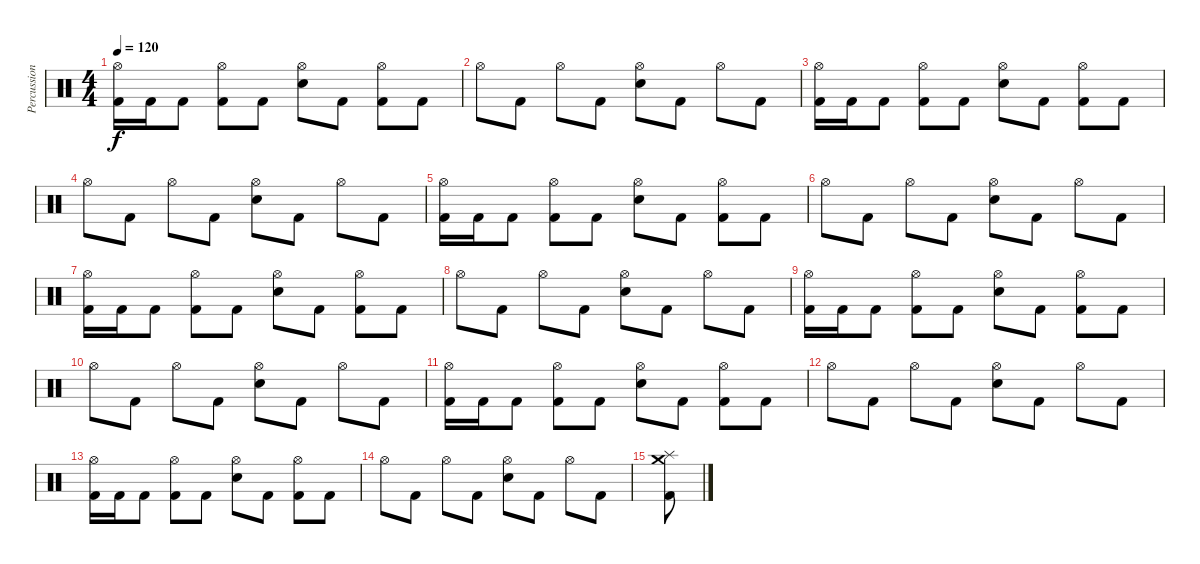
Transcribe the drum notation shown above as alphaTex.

\track ("Percussion" "Percussion") {instrument percussion}
\staff {score}
\articulation defaults
\ts (4 4)
\tempo 120
\clef neutral
\ks c
("Hi-Hat (open)" "Kick (hit) 2").16{dy f} "Kick (hit) 2".16 "Kick (hit) 2".8 ("Hi-Hat (open)" "Kick (hit) 2").8 "Kick (hit) 2".8 ("Hi-Hat (open)" "Snare (hit) 2").8 "Kick (hit) 2".8 ("Hi-Hat (open)" "Kick (hit) 2").8 "Kick (hit) 2".8 |
"Hi-Hat (open)".8 "Kick (hit) 2".8 "Hi-Hat (open)".8 "Kick (hit) 2".8 ("Hi-Hat (open)" "Snare (hit) 2").8 "Kick (hit) 2".8 "Hi-Hat (open)".8 "Kick (hit) 2".8 |
("Hi-Hat (open)" "Kick (hit) 2").16 "Kick (hit) 2".16 "Kick (hit) 2".8 ("Hi-Hat (open)" "Kick (hit) 2").8 "Kick (hit) 2".8 ("Hi-Hat (open)" "Snare (hit) 2").8 "Kick (hit) 2".8 ("Hi-Hat (open)" "Kick (hit) 2").8 "Kick (hit) 2".8 |
"Hi-Hat (open)".8 "Kick (hit) 2".8 "Hi-Hat (open)".8 "Kick (hit) 2".8 ("Hi-Hat (open)" "Snare (hit) 2").8 "Kick (hit) 2".8 "Hi-Hat (open)".8 "Kick (hit) 2".8 |
("Hi-Hat (open)" "Kick (hit) 2").16 "Kick (hit) 2".16 "Kick (hit) 2".8 ("Hi-Hat (open)" "Kick (hit) 2").8 "Kick (hit) 2".8 ("Hi-Hat (open)" "Snare (hit) 2").8 "Kick (hit) 2".8 ("Hi-Hat (open)" "Kick (hit) 2").8 "Kick (hit) 2".8 |
"Hi-Hat (open)".8 "Kick (hit) 2".8 "Hi-Hat (open)".8 "Kick (hit) 2".8 ("Hi-Hat (open)" "Snare (hit) 2").8 "Kick (hit) 2".8 "Hi-Hat (open)".8 "Kick (hit) 2".8 |
("Hi-Hat (open)" "Kick (hit) 2").16 "Kick (hit) 2".16 "Kick (hit) 2".8 ("Hi-Hat (open)" "Kick (hit) 2").8 "Kick (hit) 2".8 ("Hi-Hat (open)" "Snare (hit) 2").8 "Kick (hit) 2".8 ("Hi-Hat (open)" "Kick (hit) 2").8 "Kick (hit) 2".8 |
"Hi-Hat (open)".8 "Kick (hit) 2".8 "Hi-Hat (open)".8 "Kick (hit) 2".8 ("Hi-Hat (open)" "Snare (hit) 2").8 "Kick (hit) 2".8 "Hi-Hat (open)".8 "Kick (hit) 2".8 |
("Hi-Hat (open)" "Kick (hit) 2").16 "Kick (hit) 2".16 "Kick (hit) 2".8 ("Hi-Hat (open)" "Kick (hit) 2").8 "Kick (hit) 2".8 ("Hi-Hat (open)" "Snare (hit) 2").8 "Kick (hit) 2".8 ("Hi-Hat (open)" "Kick (hit) 2").8 "Kick (hit) 2".8 |
"Hi-Hat (open)".8 "Kick (hit) 2".8 "Hi-Hat (open)".8 "Kick (hit) 2".8 ("Hi-Hat (open)" "Snare (hit) 2").8 "Kick (hit) 2".8 "Hi-Hat (open)".8 "Kick (hit) 2".8 |
("Hi-Hat (open)" "Kick (hit) 2").16 "Kick (hit) 2".16 "Kick (hit) 2".8 ("Hi-Hat (open)" "Kick (hit) 2").8 "Kick (hit) 2".8 ("Hi-Hat (open)" "Snare (hit) 2").8 "Kick (hit) 2".8 ("Hi-Hat (open)" "Kick (hit) 2").8 "Kick (hit) 2".8 |
"Hi-Hat (open)".8 "Kick (hit) 2".8 "Hi-Hat (open)".8 "Kick (hit) 2".8 ("Hi-Hat (open)" "Snare (hit) 2").8 "Kick (hit) 2".8 "Hi-Hat (open)".8 "Kick (hit) 2".8 |
("Hi-Hat (open)" "Kick (hit) 2").16 "Kick (hit) 2".16 "Kick (hit) 2".8 ("Hi-Hat (open)" "Kick (hit) 2").8 "Kick (hit) 2".8 ("Hi-Hat (open)" "Snare (hit) 2").8 "Kick (hit) 2".8 ("Hi-Hat (open)" "Kick (hit) 2").8 "Kick (hit) 2".8 |
"Hi-Hat (open)".8 "Kick (hit) 2".8 "Hi-Hat (open)".8 "Kick (hit) 2".8 ("Hi-Hat (open)" "Snare (hit) 2").8 "Kick (hit) 2".8 "Hi-Hat (open)".8 "Kick (hit) 2".8 |
("Crash medium (hit)" "Kick (hit) 2" "Splash (hit)").8
